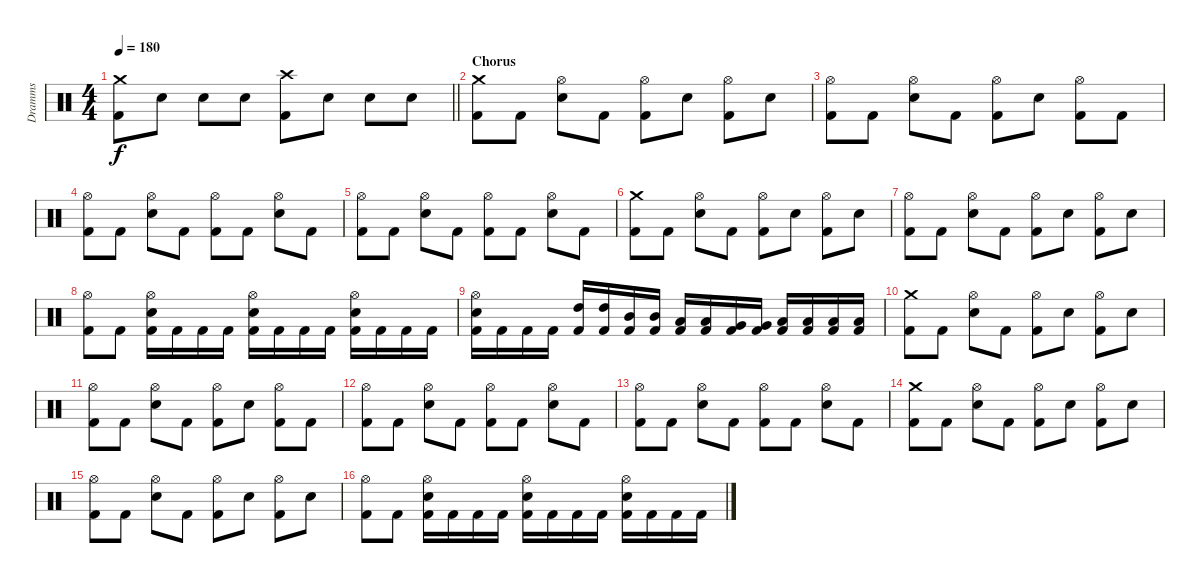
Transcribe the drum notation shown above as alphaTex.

\track ("Dramms" "Dramms") {instrument percussion}
\staff {score}
\articulation defaults
\ts (4 4)
\tempo 180
\clef neutral
\barLineRight lightlight
\ks c
("Crash medium (hit)" "Kick (hit) 2").8{dy f} "Electric Snare (hit)".8 "Electric Snare (hit)".8 "Electric Snare (hit)".8 ("Crash high (hit)" "Kick (hit) 2").8 "Electric Snare (hit)".8 "Electric Snare (hit)".8 "Electric Snare (hit)".8 |
\section ("" "Chorus")
("Crash medium (hit)" "Kick (hit) 2").8 "Kick (hit) 2".8 ("Hi-Hat (open)" "Electric Snare (hit)").8 "Kick (hit) 2".8 ("Hi-Hat (open)" "Kick (hit) 2").8 "Electric Snare (hit)".8 ("Hi-Hat (open)" "Kick (hit) 2").8 "Electric Snare (hit)".8 |
("Hi-Hat (open)" "Kick (hit) 2").8 "Kick (hit) 2".8 ("Hi-Hat (open)" "Electric Snare (hit)").8 "Kick (hit) 2".8 ("Hi-Hat (open)" "Kick (hit) 2").8 "Electric Snare (hit)".8 ("Hi-Hat (open)" "Kick (hit) 2").8 "Kick (hit) 2".8 |
("Hi-Hat (open)" "Kick (hit) 2").8 "Kick (hit) 2".8 ("Hi-Hat (open)" "Electric Snare (hit)").8 "Kick (hit) 2".8 ("Hi-Hat (open)" "Kick (hit) 2").8 "Kick (hit) 2".8 ("Hi-Hat (open)" "Electric Snare (hit)").8 "Kick (hit) 2".8 |
("Hi-Hat (open)" "Kick (hit) 2").8 "Kick (hit) 2".8 ("Hi-Hat (open)" "Electric Snare (hit)").8 "Kick (hit) 2".8 ("Hi-Hat (open)" "Kick (hit) 2").8 "Kick (hit) 2".8 ("Hi-Hat (open)" "Electric Snare (hit)").8 "Kick (hit) 2".8 |
("Crash medium (hit)" "Kick (hit) 2").8 "Kick (hit) 2".8 ("Hi-Hat (open)" "Electric Snare (hit)").8 "Kick (hit) 2".8 ("Hi-Hat (open)" "Kick (hit) 2").8 "Electric Snare (hit)".8 ("Hi-Hat (open)" "Kick (hit) 2").8 "Electric Snare (hit)".8 |
("Hi-Hat (open)" "Kick (hit) 2").8 "Kick (hit) 2".8 ("Hi-Hat (open)" "Electric Snare (hit)").8 "Kick (hit) 2".8 ("Hi-Hat (open)" "Kick (hit) 2").8 "Electric Snare (hit)".8 ("Hi-Hat (open)" "Kick (hit) 2").8 "Electric Snare (hit)".8 |
("Hi-Hat (open)" "Kick (hit) 2").8 "Kick (hit) 2".8 ("Hi-Hat (open)" "Electric Snare (hit)" "Kick (hit) 2").16 "Kick (hit) 2".16 "Kick (hit) 2".16 "Kick (hit) 2".16 ("Hi-Hat (open)" "Electric Snare (hit)" "Kick (hit) 2").16 "Kick (hit) 2".16 "Kick (hit) 2".16 "Kick (hit) 2".16 ("Hi-Hat (open)" "Electric Snare (hit)" "Kick (hit) 2").16 "Kick (hit) 2".16 "Kick (hit) 2".16 "Kick (hit) 2".16 |
("Hi-Hat (open)" "Electric Snare (hit)" "Kick (hit) 2").16 "Kick (hit) 2".16 "Kick (hit) 2".16 "Kick (hit) 2".16 ("High Tom (hit)" "Kick (hit) 2").16 ("High Tom (hit)" "Kick (hit) 2").16 ("Mid Tom (hit)" "Kick (hit) 2").16 ("Mid Tom (hit)" "Kick (hit) 2").16 ("Low Tom (hit)" "Kick (hit) 2").16 ("Low Tom (hit)" "Kick (hit) 2").16 ("Very Low Tom (hit)" "Kick (hit) 2").16 ("Very Low Tom (hit)" "Kick (hit) 2").16 ("Low Tom (hit)" "Kick (hit) 2").16 ("Low Tom (hit)" "Kick (hit) 2").16 ("Low Floor Tom (hit)" "Kick (hit) 2").16 ("Low Floor Tom (hit)" "Kick (hit) 2").16 |
("Crash medium (hit)" "Kick (hit) 2").8 "Kick (hit) 2".8 ("Hi-Hat (open)" "Electric Snare (hit)").8 "Kick (hit) 2".8 ("Hi-Hat (open)" "Kick (hit) 2").8 "Electric Snare (hit)".8 ("Hi-Hat (open)" "Kick (hit) 2").8 "Electric Snare (hit)".8 |
("Hi-Hat (open)" "Kick (hit) 2").8 "Kick (hit) 2".8 ("Hi-Hat (open)" "Electric Snare (hit)").8 "Kick (hit) 2".8 ("Hi-Hat (open)" "Kick (hit) 2").8 "Electric Snare (hit)".8 ("Hi-Hat (open)" "Kick (hit) 2").8 "Kick (hit) 2".8 |
("Hi-Hat (open)" "Kick (hit) 2").8 "Kick (hit) 2".8 ("Hi-Hat (open)" "Electric Snare (hit)").8 "Kick (hit) 2".8 ("Hi-Hat (open)" "Kick (hit) 2").8 "Kick (hit) 2".8 ("Hi-Hat (open)" "Electric Snare (hit)").8 "Kick (hit) 2".8 |
("Hi-Hat (open)" "Kick (hit) 2").8 "Kick (hit) 2".8 ("Hi-Hat (open)" "Electric Snare (hit)").8 "Kick (hit) 2".8 ("Hi-Hat (open)" "Kick (hit) 2").8 "Kick (hit) 2".8 ("Hi-Hat (open)" "Electric Snare (hit)").8 "Kick (hit) 2".8 |
("Crash medium (hit)" "Kick (hit) 2").8 "Kick (hit) 2".8 ("Hi-Hat (open)" "Electric Snare (hit)").8 "Kick (hit) 2".8 ("Hi-Hat (open)" "Kick (hit) 2").8 "Electric Snare (hit)".8 ("Hi-Hat (open)" "Kick (hit) 2").8 "Electric Snare (hit)".8 |
("Hi-Hat (open)" "Kick (hit) 2").8 "Kick (hit) 2".8 ("Hi-Hat (open)" "Electric Snare (hit)").8 "Kick (hit) 2".8 ("Hi-Hat (open)" "Kick (hit) 2").8 "Electric Snare (hit)".8 ("Hi-Hat (open)" "Kick (hit) 2").8 "Electric Snare (hit)".8 |
("Hi-Hat (open)" "Kick (hit) 2").8 "Kick (hit) 2".8 ("Hi-Hat (open)" "Electric Snare (hit)" "Kick (hit) 2").16 "Kick (hit) 2".16 "Kick (hit) 2".16 "Kick (hit) 2".16 ("Hi-Hat (open)" "Electric Snare (hit)" "Kick (hit) 2").16 "Kick (hit) 2".16 "Kick (hit) 2".16 "Kick (hit) 2".16 ("Hi-Hat (open)" "Electric Snare (hit)" "Kick (hit) 2").16 "Kick (hit) 2".16 "Kick (hit) 2".16 "Kick (hit) 2".16
